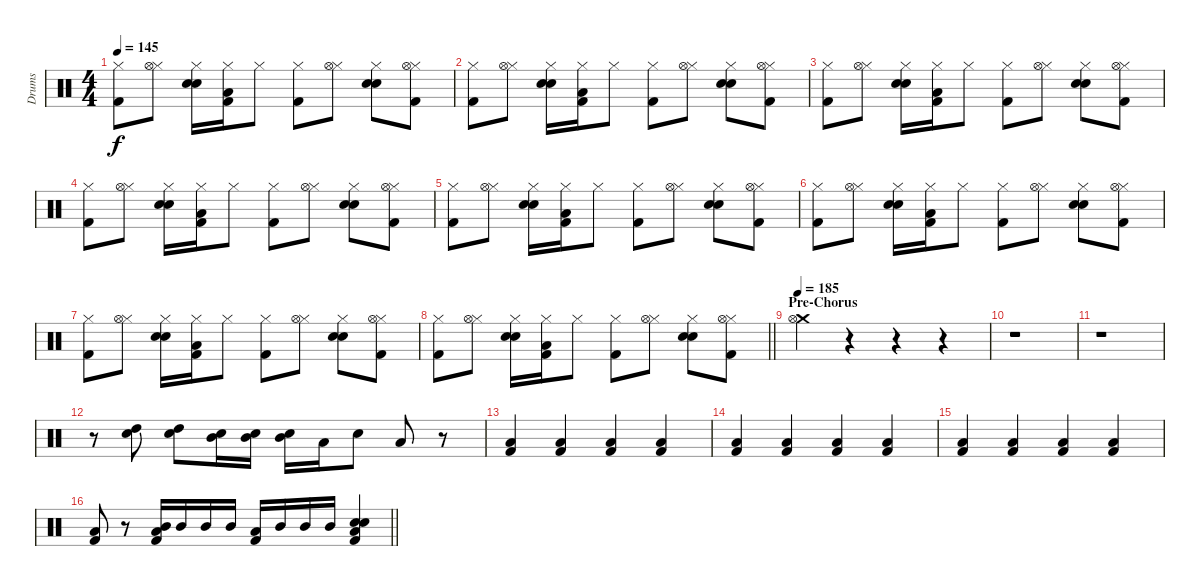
\track ("Drums" "Drums") {instrument percussion}
\staff {score}
\articulation defaults
\ts (4 4)
\tempo 145
\clef neutral
\ks c
("Hi-Hat (closed)" "Kick (hit) 2").8{dy f} ("Hi-Hat (closed)" "Hi-Hat (open)").8 ("Hi-Hat (closed)" "Snare (hit) 2" "Electric Snare (hit)").16 ("Hi-Hat (closed)" "Low Floor Tom (hit)" "Kick (hit) 2").16 "Hi-Hat (closed)".8 ("Hi-Hat (closed)" "Kick (hit) 2").8 ("Hi-Hat (closed)" "Hi-Hat (open)").8 ("Hi-Hat (closed)" "Snare (hit) 2" "Electric Snare (hit)").8 ("Hi-Hat (closed)" "Hi-Hat (open)" "Kick (hit) 2").8 |
("Hi-Hat (closed)" "Kick (hit) 2").8 ("Hi-Hat (closed)" "Hi-Hat (open)").8 ("Hi-Hat (closed)" "Snare (hit) 2" "Electric Snare (hit)").16 ("Hi-Hat (closed)" "Low Floor Tom (hit)" "Kick (hit) 2").16 "Hi-Hat (closed)".8 ("Hi-Hat (closed)" "Kick (hit) 2").8 ("Hi-Hat (closed)" "Hi-Hat (open)").8 ("Hi-Hat (closed)" "Snare (hit) 2" "Electric Snare (hit)").8 ("Hi-Hat (closed)" "Hi-Hat (open)" "Kick (hit) 2").8 |
("Hi-Hat (closed)" "Kick (hit) 2").8 ("Hi-Hat (closed)" "Hi-Hat (open)").8 ("Hi-Hat (closed)" "Snare (hit) 2" "Electric Snare (hit)").16 ("Hi-Hat (closed)" "Low Floor Tom (hit)" "Kick (hit) 2").16 "Hi-Hat (closed)".8 ("Hi-Hat (closed)" "Kick (hit) 2").8 ("Hi-Hat (closed)" "Hi-Hat (open)").8 ("Hi-Hat (closed)" "Snare (hit) 2" "Electric Snare (hit)").8 ("Hi-Hat (closed)" "Hi-Hat (open)" "Kick (hit) 2").8 |
("Hi-Hat (closed)" "Kick (hit) 2").8 ("Hi-Hat (closed)" "Hi-Hat (open)").8 ("Hi-Hat (closed)" "Snare (hit) 2" "Electric Snare (hit)").16 ("Hi-Hat (closed)" "Low Floor Tom (hit)" "Kick (hit) 2").16 "Hi-Hat (closed)".8 ("Hi-Hat (closed)" "Kick (hit) 2").8 ("Hi-Hat (closed)" "Hi-Hat (open)").8 ("Hi-Hat (closed)" "Snare (hit) 2" "Electric Snare (hit)").8 ("Hi-Hat (closed)" "Hi-Hat (open)" "Kick (hit) 2").8 |
("Hi-Hat (closed)" "Kick (hit) 2").8 ("Hi-Hat (closed)" "Hi-Hat (open)").8 ("Hi-Hat (closed)" "Snare (hit) 2" "Electric Snare (hit)").16 ("Hi-Hat (closed)" "Low Floor Tom (hit)" "Kick (hit) 2").16 "Hi-Hat (closed)".8 ("Hi-Hat (closed)" "Kick (hit) 2").8 ("Hi-Hat (closed)" "Hi-Hat (open)").8 ("Hi-Hat (closed)" "Snare (hit) 2" "Electric Snare (hit)").8 ("Hi-Hat (closed)" "Hi-Hat (open)" "Kick (hit) 2").8 |
("Hi-Hat (closed)" "Kick (hit) 2").8 ("Hi-Hat (closed)" "Hi-Hat (open)").8 ("Hi-Hat (closed)" "Snare (hit) 2" "Electric Snare (hit)").16 ("Hi-Hat (closed)" "Low Floor Tom (hit)" "Kick (hit) 2").16 "Hi-Hat (closed)".8 ("Hi-Hat (closed)" "Kick (hit) 2").8 ("Hi-Hat (closed)" "Hi-Hat (open)").8 ("Hi-Hat (closed)" "Snare (hit) 2" "Electric Snare (hit)").8 ("Hi-Hat (closed)" "Hi-Hat (open)" "Kick (hit) 2").8 |
("Hi-Hat (closed)" "Kick (hit) 2").8 ("Hi-Hat (closed)" "Hi-Hat (open)").8 ("Hi-Hat (closed)" "Snare (hit) 2" "Electric Snare (hit)").16 ("Hi-Hat (closed)" "Low Floor Tom (hit)" "Kick (hit) 2").16 "Hi-Hat (closed)".8 ("Hi-Hat (closed)" "Kick (hit) 2").8 ("Hi-Hat (closed)" "Hi-Hat (open)").8 ("Hi-Hat (closed)" "Snare (hit) 2" "Electric Snare (hit)").8 ("Hi-Hat (closed)" "Hi-Hat (open)" "Kick (hit) 2").8 |
\barLineRight lightlight
("Hi-Hat (closed)" "Kick (hit) 2").8 ("Hi-Hat (closed)" "Hi-Hat (open)").8 ("Hi-Hat (closed)" "Snare (hit) 2" "Electric Snare (hit)").16 ("Hi-Hat (closed)" "Low Floor Tom (hit)" "Kick (hit) 2").16 "Hi-Hat (closed)".8 ("Hi-Hat (closed)" "Kick (hit) 2").8 ("Hi-Hat (closed)" "Hi-Hat (open)").8 ("Hi-Hat (closed)" "Snare (hit) 2" "Electric Snare (hit)").8 ("Hi-Hat (closed)" "Hi-Hat (open)" "Kick (hit) 2").8 |
\section ("" "Pre-Chorus")
\tempo 185
("Crash medium (hit)" "Hi-Hat (open)").4 r.4 r.4 r.4 |
r.1 |
r.1 |
r.8 ("Snare (hit) 2" "High Tom (hit)").8 ("Snare (hit) 2" "High Tom (hit)").8 ("Snare (hit) 2" "Mid Tom (hit)").16 ("Snare (hit) 2" "Mid Tom (hit)").16 ("Snare (hit) 2" "Mid Tom (hit)").16 "Low Tom (hit)".16 "Snare (hit) 2".8 "Low Floor Tom (hit)".8 r.8 |
("Low Floor Tom (hit)" "Kick (hit) 2").4 ("Low Floor Tom (hit)" "Kick (hit) 2").4 ("Low Floor Tom (hit)" "Kick (hit) 2").4 ("Low Floor Tom (hit)" "Kick (hit) 2").4 |
("Low Floor Tom (hit)" "Kick (hit) 2").4 ("Low Floor Tom (hit)" "Kick (hit) 2").4 ("Low Floor Tom (hit)" "Kick (hit) 2").4 ("Low Floor Tom (hit)" "Kick (hit) 2").4 |
("Low Floor Tom (hit)" "Kick (hit) 2").4 ("Low Floor Tom (hit)" "Kick (hit) 2").4 ("Low Floor Tom (hit)" "Kick (hit) 2").4 ("Low Floor Tom (hit)" "Kick (hit) 2").4 |
\barLineRight lightlight
("Low Floor Tom (hit)" "Kick (hit) 2").8 r.8 ("Mid Tom (hit)" "Low Floor Tom (hit)" "Kick (hit) 2").16 "Mid Tom (hit)".16 "Mid Tom (hit)".16 "Mid Tom (hit)".16 ("Low Floor Tom (hit)" "Kick (hit) 2").16 "Mid Tom (hit)".16 "Mid Tom (hit)".16 "Mid Tom (hit)".16 ("Snare (hit) 2" "Electric Snare (hit)" "Low Floor Tom (hit)" "Kick (hit) 2").4
